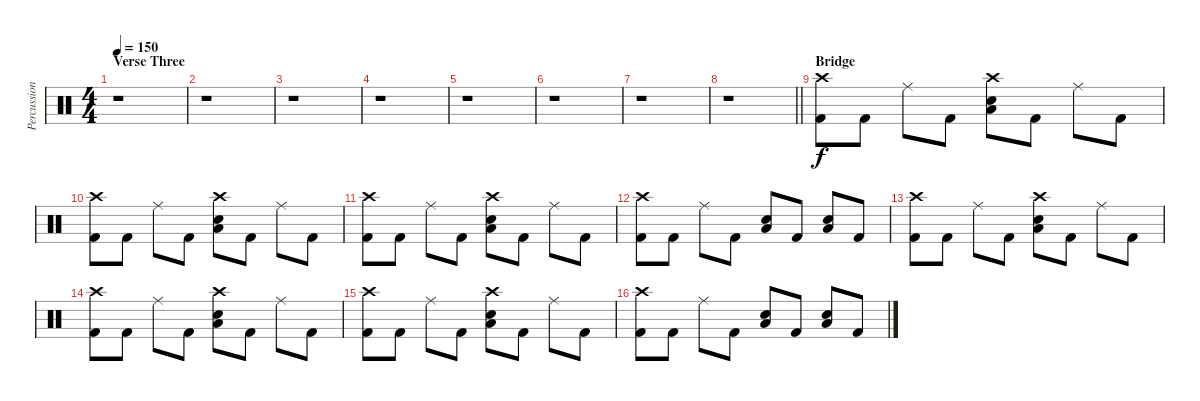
\track ("Percussion" "Percussion") {instrument percussion}
\staff {score}
\articulation defaults
\ts (4 4)
\section ("" "Verse Three")
\tempo 150
\clef neutral
\ks c
r.1{dy f} |
r.1 |
r.1 |
r.1 |
r.1 |
r.1 |
r.1 |
\barLineRight lightlight
r.1 |
\section ("" "Bridge")
("Crash high (hit)" "Kick (hit) 2").8 "Kick (hit) 2".8 "Ride (middle)".8 "Kick (hit) 2".8 ("Crash high (hit)" "Low Tom (hit)" "Snare (hit) 2").8 "Kick (hit) 2".8 "Ride (middle)".8 "Kick (hit) 2".8 |
("Crash high (hit)" "Kick (hit) 2").8 "Kick (hit) 2".8 "Ride (middle)".8 "Kick (hit) 2".8 ("Crash high (hit)" "Low Tom (hit)" "Snare (hit) 2").8 "Kick (hit) 2".8 "Ride (middle)".8 "Kick (hit) 2".8 |
("Crash high (hit)" "Kick (hit) 2").8 "Kick (hit) 2".8 "Ride (middle)".8 "Kick (hit) 2".8 ("Crash high (hit)" "Low Tom (hit)" "Snare (hit) 2").8 "Kick (hit) 2".8 "Ride (middle)".8 "Kick (hit) 2".8 |
("Crash high (hit)" "Kick (hit) 2").8 "Kick (hit) 2".8 "Ride (middle)".8 "Kick (hit) 2".8 ("Low Tom (hit)" "Snare (hit) 2").8 "Kick (hit) 2".8 ("Low Tom (hit)" "Snare (hit) 2").8 "Kick (hit) 2".8 |
("Crash high (hit)" "Kick (hit) 2").8 "Kick (hit) 2".8 "Ride (middle)".8 "Kick (hit) 2".8 ("Crash high (hit)" "Low Tom (hit)" "Snare (hit) 2").8 "Kick (hit) 2".8 "Ride (middle)".8 "Kick (hit) 2".8 |
("Crash high (hit)" "Kick (hit) 2").8 "Kick (hit) 2".8 "Ride (middle)".8 "Kick (hit) 2".8 ("Crash high (hit)" "Low Tom (hit)" "Snare (hit) 2").8 "Kick (hit) 2".8 "Ride (middle)".8 "Kick (hit) 2".8 |
("Crash high (hit)" "Kick (hit) 2").8 "Kick (hit) 2".8 "Ride (middle)".8 "Kick (hit) 2".8 ("Crash high (hit)" "Low Tom (hit)" "Snare (hit) 2").8 "Kick (hit) 2".8 "Ride (middle)".8 "Kick (hit) 2".8 |
("Crash high (hit)" "Kick (hit) 2").8 "Kick (hit) 2".8 "Ride (middle)".8 "Kick (hit) 2".8 ("Low Tom (hit)" "Snare (hit) 2").8 "Kick (hit) 2".8 ("Low Tom (hit)" "Snare (hit) 2").8 "Kick (hit) 2".8
